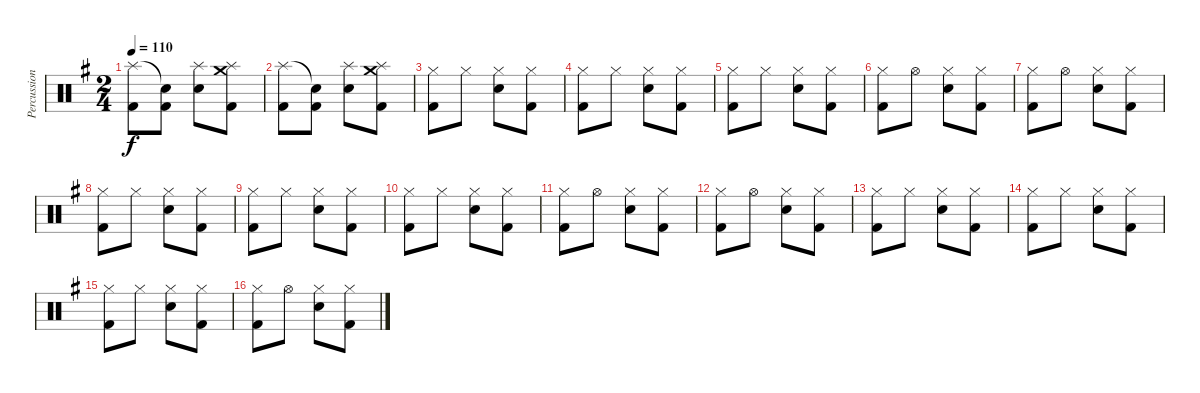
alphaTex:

\track ("Percussion" "Percussion") {instrument percussion}
\staff {score}
\articulation defaults
\ts (2 4)
\tempo 110
\clef neutral
\ks g
("Splash (hit)" "Kick (hit) 2").8{dy f} ("Snare (hit)"{t} "Kick (hit) 2").8 ("Splash (hit)" "Electric Snare (hit)").8 ("Crash medium (hit)" "Splash (hit)" "Kick (hit) 2").8 |
("Splash (hit)" "Kick (hit) 2").8 ("Snare (hit)"{t} "Kick (hit) 2").8 ("Splash (hit)" "Electric Snare (hit)").8 ("Crash medium (hit)" "Splash (hit)" "Kick (hit) 2").8 |
("Hi-Hat (closed)" "Kick (hit) 2").8 "Hi-Hat (closed)".8 ("Hi-Hat (closed)" "Electric Snare (hit)").8 ("Hi-Hat (closed)" "Kick (hit) 2").8 |
("Hi-Hat (closed)" "Kick (hit) 2").8 "Hi-Hat (closed)".8 ("Hi-Hat (closed)" "Electric Snare (hit)").8 ("Hi-Hat (closed)" "Kick (hit) 2").8 |
("Hi-Hat (closed)" "Kick (hit) 2").8 "Hi-Hat (closed)".8 ("Hi-Hat (closed)" "Electric Snare (hit)").8 ("Hi-Hat (closed)" "Kick (hit) 2").8 |
("Hi-Hat (closed)" "Kick (hit) 2").8 "Hi-Hat (open)".8 ("Hi-Hat (closed)" "Electric Snare (hit)").8 ("Hi-Hat (closed)" "Kick (hit) 2").8 |
("Hi-Hat (closed)" "Kick (hit) 2").8 "Hi-Hat (open)".8 ("Hi-Hat (closed)" "Electric Snare (hit)").8 ("Hi-Hat (closed)" "Kick (hit) 2").8 |
("Hi-Hat (closed)" "Kick (hit) 2").8 "Hi-Hat (closed)".8 ("Hi-Hat (closed)" "Electric Snare (hit)").8 ("Hi-Hat (closed)" "Kick (hit) 2").8 |
("Hi-Hat (closed)" "Kick (hit) 2").8 "Hi-Hat (closed)".8 ("Hi-Hat (closed)" "Electric Snare (hit)").8 ("Hi-Hat (closed)" "Kick (hit) 2").8 |
("Hi-Hat (closed)" "Kick (hit) 2").8 "Hi-Hat (closed)".8 ("Hi-Hat (closed)" "Electric Snare (hit)").8 ("Hi-Hat (closed)" "Kick (hit) 2").8 |
("Hi-Hat (closed)" "Kick (hit) 2").8 "Hi-Hat (open)".8 ("Hi-Hat (closed)" "Electric Snare (hit)").8 ("Hi-Hat (closed)" "Kick (hit) 2").8 |
("Hi-Hat (closed)" "Kick (hit) 2").8 "Hi-Hat (open)".8 ("Hi-Hat (closed)" "Electric Snare (hit)").8 ("Hi-Hat (closed)" "Kick (hit) 2").8 |
("Hi-Hat (closed)" "Kick (hit) 2").8 "Hi-Hat (closed)".8 ("Hi-Hat (closed)" "Electric Snare (hit)").8 ("Hi-Hat (closed)" "Kick (hit) 2").8 |
("Hi-Hat (closed)" "Kick (hit) 2").8 "Hi-Hat (closed)".8 ("Hi-Hat (closed)" "Electric Snare (hit)").8 ("Hi-Hat (closed)" "Kick (hit) 2").8 |
("Hi-Hat (closed)" "Kick (hit) 2").8 "Hi-Hat (closed)".8 ("Hi-Hat (closed)" "Electric Snare (hit)").8 ("Hi-Hat (closed)" "Kick (hit) 2").8 |
("Hi-Hat (closed)" "Kick (hit) 2").8 "Hi-Hat (open)".8 ("Hi-Hat (closed)" "Electric Snare (hit)").8 ("Hi-Hat (closed)" "Kick (hit) 2").8
